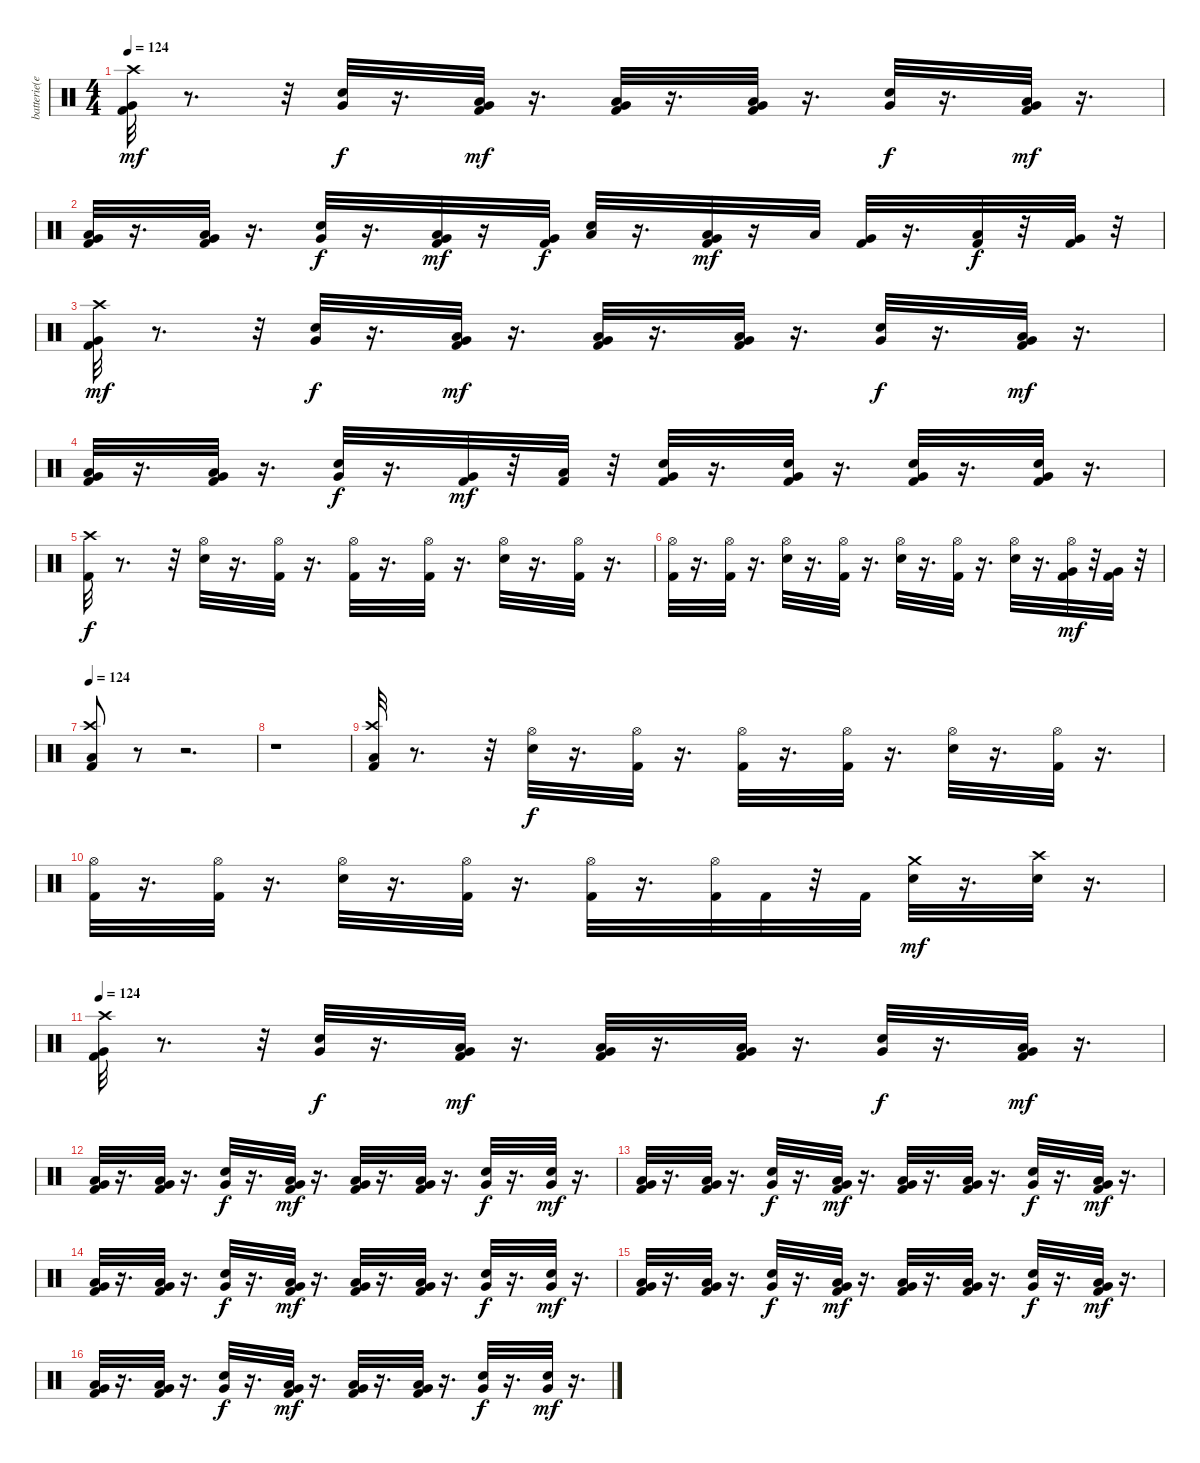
\track ("batterie(eric)" "batterie(e") {instrument percussion}
\staff {score}
\articulation defaults
\ts (4 4)
\tempo 124
\clef neutral
\ks c
("Kick (hit) 2" "Very Low Tom (hit)" "Crash high (hit)").32{dy mf} r.8{d} r.32 ("Snare (hit) 2" "Very Low Tom (hit)").32{dy f} r.16{d} ("Kick (hit) 2" "Low Floor Tom (hit)" "Very Low Tom (hit)").32{dy mf} r.16{d} ("Kick (hit) 2" "Low Floor Tom (hit)" "Very Low Tom (hit)").32 r.16{d} ("Kick (hit) 2" "Low Floor Tom (hit)" "Very Low Tom (hit)").32 r.16{d} ("Snare (hit) 2" "Very Low Tom (hit)").32{dy f} r.16{d} ("Kick (hit) 2" "Low Floor Tom (hit)" "Very Low Tom (hit)").32{dy mf} r.16{d} |
("Kick (hit) 2" "Low Floor Tom (hit)" "Very Low Tom (hit)").32 r.16{d} ("Kick (hit) 2" "Low Floor Tom (hit)" "Very Low Tom (hit)").32 r.16{d} ("Snare (hit) 2" "Very Low Tom (hit)").32{dy f} r.16{d} ("Kick (hit) 2" "Low Floor Tom (hit)" "Very Low Tom (hit)").32{dy mf} r.16 ("Kick (hit) 2" "Very Low Tom (hit)").32{dy f} ("Snare (hit) 2" "Low Floor Tom (hit)").32 r.16{d} ("Kick (hit) 2" "Low Floor Tom (hit)" "Very Low Tom (hit)").32{dy mf} r.16 "Low Tom (hit)".32 ("Kick (hit) 2" "Very Low Tom (hit)").32 r.16{d} ("Kick (hit) 2" "Low Tom (hit)").32{dy f} r.32 ("Kick (hit) 2" "Very Low Tom (hit)").32 r.32 |
("Kick (hit) 2" "Very Low Tom (hit)" "Crash high (hit)").32{dy mf} r.8{d} r.32 ("Snare (hit) 2" "Very Low Tom (hit)").32{dy f} r.16{d} ("Kick (hit) 2" "Low Floor Tom (hit)" "Very Low Tom (hit)").32{dy mf} r.16{d} ("Kick (hit) 2" "Low Floor Tom (hit)" "Very Low Tom (hit)").32 r.16{d} ("Kick (hit) 2" "Low Floor Tom (hit)" "Very Low Tom (hit)").32 r.16{d} ("Snare (hit) 2" "Very Low Tom (hit)").32{dy f} r.16{d} ("Kick (hit) 2" "Low Floor Tom (hit)" "Very Low Tom (hit)").32{dy mf} r.16{d} |
("Kick (hit) 2" "Low Floor Tom (hit)" "Very Low Tom (hit)").32 r.16{d} ("Kick (hit) 2" "Low Floor Tom (hit)" "Very Low Tom (hit)").32 r.16{d} ("Snare (hit) 2" "Very Low Tom (hit)").32{dy f} r.16{d} ("Kick (hit) 2" "Very Low Tom (hit)").32{dy mf} r.32 ("Kick (hit) 2" "Low Floor Tom (hit)").32 r.32 ("Kick (hit) 2" "Snare (hit) 2" "Very Low Tom (hit)").32 r.16{d} ("Kick (hit) 2" "Snare (hit) 2" "Very Low Tom (hit)").32 r.16{d} ("Kick (hit) 2" "Snare (hit) 2" "Very Low Tom (hit)").32 r.16{d} ("Kick (hit) 2" "Snare (hit) 2" "Very Low Tom (hit)").32 r.16{d} |
("Kick (hit) 2" "Crash high (hit)").32{dy f} r.8{d} r.32 ("Snare (hit) 2" "Hi-Hat (open)").32 r.16{d} ("Kick (hit) 2" "Hi-Hat (open)").32 r.16{d} ("Kick (hit) 2" "Hi-Hat (open)").32 r.16{d} ("Kick (hit) 2" "Hi-Hat (open)").32 r.16{d} ("Snare (hit) 2" "Hi-Hat (open)").32 r.16{d} ("Kick (hit) 2" "Hi-Hat (open)").32 r.16{d} |
("Kick (hit) 2" "Hi-Hat (open)").32 r.16{d} ("Kick (hit) 2" "Hi-Hat (open)").32 r.16{d} ("Snare (hit) 2" "Hi-Hat (open)").32 r.16{d} ("Kick (hit) 2" "Hi-Hat (open)").32 r.16{d} ("Snare (hit) 2" "Hi-Hat (open)").32 r.16{d} ("Kick (hit) 2" "Hi-Hat (open)").32 r.16{d} ("Snare (hit) 2" "Hi-Hat (open)").32 r.16{d} ("Kick (hit) 2" "Very Low Tom (hit)" "Hi-Hat (open)").32{dy mf} r.32 ("Kick (hit) 2" "Very Low Tom (hit)").32 r.32 |
\tempo 124
("Kick (hit) 2" "Low Floor Tom (hit)" "Crash high (hit)").8 r.8 r.2{d} |
r.1 |
("Kick (hit) 2" "Low Floor Tom (hit)" "Crash high (hit)").32 r.8{d} r.32 ("Snare (hit) 2" "Hi-Hat (open)").32{dy f} r.16{d} ("Kick (hit) 2" "Hi-Hat (open)").32 r.16{d} ("Kick (hit) 2" "Hi-Hat (open)").32 r.16{d} ("Kick (hit) 2" "Hi-Hat (open)").32 r.16{d} ("Snare (hit) 2" "Hi-Hat (open)").32 r.16{d} ("Kick (hit) 2" "Hi-Hat (open)").32 r.16{d} |
("Kick (hit) 2" "Hi-Hat (open)").32 r.16{d} ("Kick (hit) 2" "Hi-Hat (open)").32 r.16{d} ("Snare (hit) 2" "Hi-Hat (open)").32 r.16{d} ("Kick (hit) 2" "Hi-Hat (open)").32 r.16{d} ("Kick (hit) 2" "Hi-Hat (open)").32 r.16{d} ("Kick (hit) 2" "Hi-Hat (open)").32 "Kick (hit) 2".32 r.32 "Kick (hit) 2".32 ("Snare (hit) 2" "Crash medium (hit)").32{dy mf} r.16{d} ("Snare (hit) 2" "Crash high (hit)").32 r.16{d} |
\tempo 124
("Kick (hit) 2" "Very Low Tom (hit)" "Crash high (hit)").32 r.8{d} r.32 ("Snare (hit) 2" "Very Low Tom (hit)").32{dy f} r.16{d} ("Kick (hit) 2" "Low Floor Tom (hit)" "Very Low Tom (hit)").32{dy mf} r.16{d} ("Kick (hit) 2" "Low Floor Tom (hit)" "Very Low Tom (hit)").32 r.16{d} ("Kick (hit) 2" "Low Floor Tom (hit)" "Very Low Tom (hit)").32 r.16{d} ("Snare (hit) 2" "Very Low Tom (hit)").32{dy f} r.16{d} ("Kick (hit) 2" "Low Floor Tom (hit)" "Very Low Tom (hit)").32{dy mf} r.16{d} |
("Kick (hit) 2" "Low Floor Tom (hit)" "Very Low Tom (hit)").32 r.16{d} ("Kick (hit) 2" "Low Floor Tom (hit)" "Very Low Tom (hit)").32 r.16{d} ("Snare (hit) 2" "Very Low Tom (hit)").32{dy f} r.16{d} ("Kick (hit) 2" "Low Floor Tom (hit)" "Very Low Tom (hit)").32{dy mf} r.16{d} ("Kick (hit) 2" "Low Floor Tom (hit)" "Very Low Tom (hit)").32 r.16{d} ("Kick (hit) 2" "Low Floor Tom (hit)" "Very Low Tom (hit)").32 r.16{d} ("Snare (hit) 2" "Very Low Tom (hit)").32{dy f} r.16{d} ("Snare (hit) 2" "Very Low Tom (hit)").32{dy mf} r.16{d} |
("Kick (hit) 2" "Low Floor Tom (hit)" "Very Low Tom (hit)").32 r.16{d} ("Kick (hit) 2" "Low Floor Tom (hit)" "Very Low Tom (hit)").32 r.16{d} ("Snare (hit) 2" "Very Low Tom (hit)").32{dy f} r.16{d} ("Kick (hit) 2" "Low Floor Tom (hit)" "Very Low Tom (hit)").32{dy mf} r.16{d} ("Kick (hit) 2" "Low Floor Tom (hit)" "Very Low Tom (hit)").32 r.16{d} ("Kick (hit) 2" "Low Floor Tom (hit)" "Very Low Tom (hit)").32 r.16{d} ("Snare (hit) 2" "Very Low Tom (hit)").32{dy f} r.16{d} ("Kick (hit) 2" "Low Floor Tom (hit)" "Very Low Tom (hit)").32{dy mf} r.16{d} |
("Kick (hit) 2" "Low Floor Tom (hit)" "Very Low Tom (hit)").32 r.16{d} ("Kick (hit) 2" "Low Floor Tom (hit)" "Very Low Tom (hit)").32 r.16{d} ("Snare (hit) 2" "Very Low Tom (hit)").32{dy f} r.16{d} ("Kick (hit) 2" "Low Floor Tom (hit)" "Very Low Tom (hit)").32{dy mf} r.16{d} ("Kick (hit) 2" "Low Floor Tom (hit)" "Very Low Tom (hit)").32 r.16{d} ("Kick (hit) 2" "Low Floor Tom (hit)" "Very Low Tom (hit)").32 r.16{d} ("Snare (hit) 2" "Very Low Tom (hit)").32{dy f} r.16{d} ("Snare (hit) 2" "Very Low Tom (hit)").32{dy mf} r.16{d} |
("Kick (hit) 2" "Low Floor Tom (hit)" "Very Low Tom (hit)").32 r.16{d} ("Kick (hit) 2" "Low Floor Tom (hit)" "Very Low Tom (hit)").32 r.16{d} ("Snare (hit) 2" "Very Low Tom (hit)").32{dy f} r.16{d} ("Kick (hit) 2" "Low Floor Tom (hit)" "Very Low Tom (hit)").32{dy mf} r.16{d} ("Kick (hit) 2" "Low Floor Tom (hit)" "Very Low Tom (hit)").32 r.16{d} ("Kick (hit) 2" "Low Floor Tom (hit)" "Very Low Tom (hit)").32 r.16{d} ("Snare (hit) 2" "Very Low Tom (hit)").32{dy f} r.16{d} ("Kick (hit) 2" "Low Floor Tom (hit)" "Very Low Tom (hit)").32{dy mf} r.16{d} |
("Kick (hit) 2" "Low Floor Tom (hit)" "Very Low Tom (hit)").32 r.16{d} ("Kick (hit) 2" "Low Floor Tom (hit)" "Very Low Tom (hit)").32 r.16{d} ("Snare (hit) 2" "Very Low Tom (hit)").32{dy f} r.16{d} ("Kick (hit) 2" "Low Floor Tom (hit)" "Very Low Tom (hit)").32{dy mf} r.16{d} ("Kick (hit) 2" "Low Floor Tom (hit)" "Very Low Tom (hit)").32 r.16{d} ("Kick (hit) 2" "Low Floor Tom (hit)" "Very Low Tom (hit)").32 r.16{d} ("Snare (hit) 2" "Very Low Tom (hit)").32{dy f} r.16{d} ("Snare (hit) 2" "Very Low Tom (hit)").32{dy mf} r.16{d}
